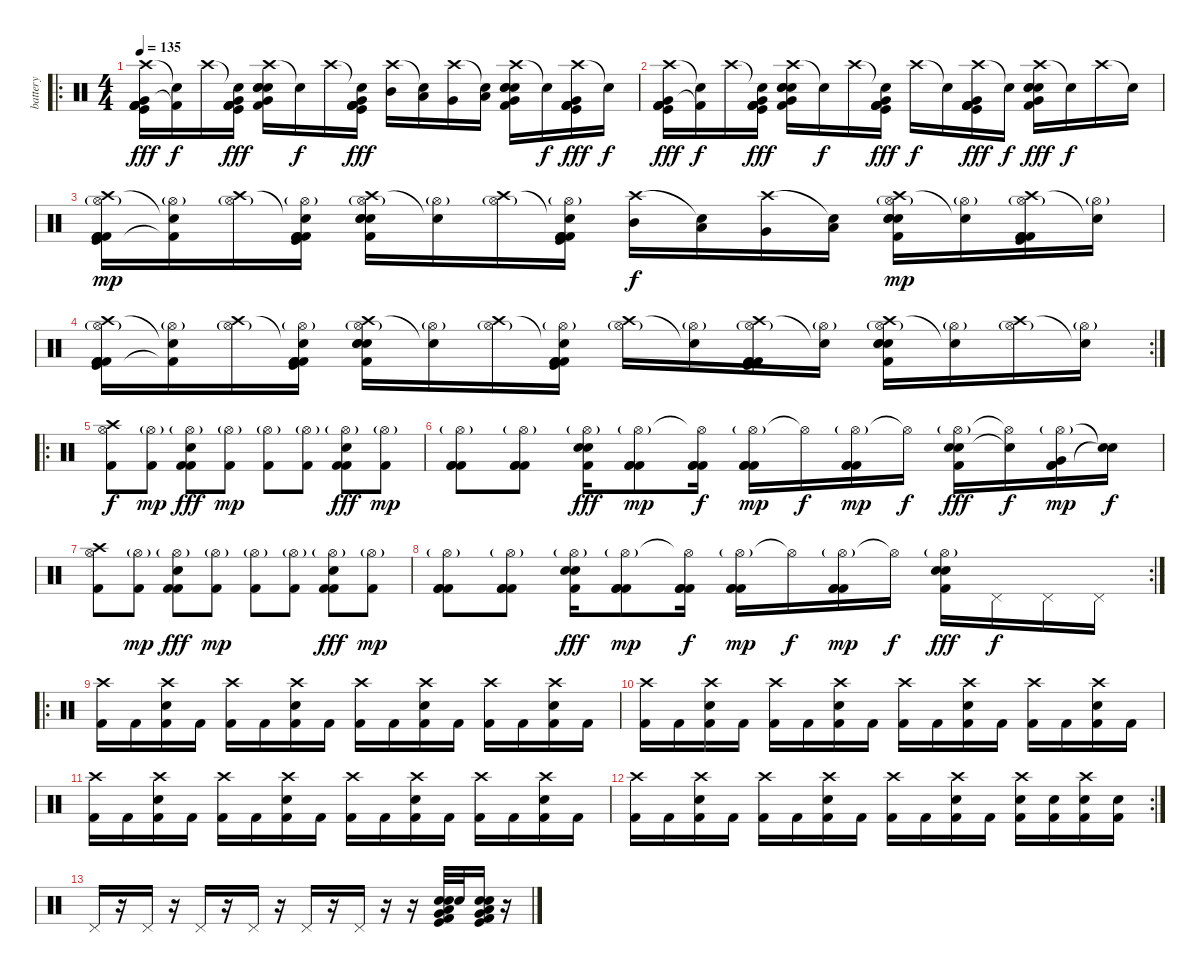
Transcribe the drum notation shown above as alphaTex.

\track ("battery" "battery") {instrument percussion}
\staff {score}
\articulation defaults
\ro
\ts (4 4)
\tempo 135
\clef neutral
\ks c
("Crash high (hit)" "Very Low Tom (hit)" "Kick (hit)" "Kick (hit) 2" "Kick (hit) 2" "Kick (hit) 2").16{dy fff} ("Snare (hit)"{t} "Kick (hit) 2"{t}).16{dy f} "Crash high (hit)".16 ("Snare (hit)"{t} "Very Low Tom (hit)" "Kick (hit)" "Kick (hit) 2" "Kick (hit) 2" "Kick (hit) 2").16{dy fff} ("Crash high (hit)" "Very Low Tom (hit)" "Kick (hit) 2" "Electric Snare (hit)" "Electric Snare (hit)" "Electric Snare (hit)").16 "Snare (hit)"{t}.16{dy f} "Crash high (hit)".16 ("Snare (hit)"{t} "Very Low Tom (hit)" "Kick (hit)" "Kick (hit) 2" "Kick (hit) 2" "Kick (hit) 2").16{dy fff} ("Crash high (hit)" "Mid Tom (hit)").16 ("Snare (hit)"{t} "Low Tom (hit)").16 ("Crash high (hit)" "Very Low Tom (hit)").16 ("Snare (hit)"{t} "Low Floor Tom (hit)").16 ("Crash high (hit)" "Very Low Tom (hit)" "Kick (hit) 2" "Electric Snare (hit)" "Electric Snare (hit)" "Electric Snare (hit)").16 "Snare (hit)"{t}.16{dy f} ("Crash high (hit)" "Very Low Tom (hit)" "Kick (hit)" "Kick (hit) 2" "Kick (hit) 2" "Kick (hit) 2").16{dy fff} "Snare (hit)"{t}.16{dy f} |
("Crash high (hit)" "Very Low Tom (hit)" "Kick (hit)" "Kick (hit) 2" "Kick (hit) 2" "Kick (hit) 2").16{dy fff} ("Snare (hit)"{t} "Kick (hit) 2"{t}).16{dy f} "Crash high (hit)".16 ("Snare (hit)"{t} "Very Low Tom (hit)" "Kick (hit)" "Kick (hit) 2" "Kick (hit) 2" "Kick (hit) 2").16{dy fff} ("Crash high (hit)" "Very Low Tom (hit)" "Kick (hit) 2" "Electric Snare (hit)" "Electric Snare (hit)" "Electric Snare (hit)").16 "Snare (hit)"{t}.16{dy f} "Crash high (hit)".16 ("Snare (hit)"{t} "Very Low Tom (hit)" "Kick (hit)" "Kick (hit) 2" "Kick (hit) 2" "Kick (hit) 2").16{dy fff} "Crash high (hit)".16{dy f} "Snare (hit)"{t}.16 ("Crash high (hit)" "Very Low Tom (hit)" "Kick (hit)" "Kick (hit) 2" "Kick (hit) 2" "Kick (hit) 2").16{dy fff} "Snare (hit)"{t}.16{dy f} ("Crash high (hit)" "Very Low Tom (hit)" "Kick (hit) 2" "Electric Snare (hit)" "Electric Snare (hit)" "Electric Snare (hit)").16{dy fff} "Snare (hit)"{t}.16{dy f} "Crash high (hit)".16 "Snare (hit)"{t}.16 |
("Crash high (hit)" "Hi-Hat (open)"{g} "Kick (hit)" "Kick (hit) 2" "Kick (hit) 2" "Kick (hit) 2").16{dy mp} ("Snare (hit)"{t} "Hi-Hat (open)"{g} "Kick (hit) 2"{t}).16 ("Crash high (hit)" "Hi-Hat (open)"{g}).16 ("Snare (hit)"{t} "Hi-Hat (open)"{g} "Kick (hit)" "Kick (hit) 2" "Kick (hit) 2" "Kick (hit) 2").16 ("Crash high (hit)" "Hi-Hat (open)"{g} "Kick (hit) 2" "Electric Snare (hit)" "Electric Snare (hit)" "Electric Snare (hit)").16 ("Snare (hit)"{t} "Hi-Hat (open)"{g}).16 ("Crash high (hit)" "Hi-Hat (open)"{g}).16 ("Snare (hit)"{t} "Hi-Hat (open)"{g} "Kick (hit)" "Kick (hit) 2" "Kick (hit) 2" "Kick (hit) 2").16 ("Crash high (hit)" "Mid Tom (hit)").16{dy f} ("Snare (hit)"{t} "Low Tom (hit)").16 ("Crash high (hit)" "Very Low Tom (hit)").16 ("Snare (hit)"{t} "Low Floor Tom (hit)").16 ("Crash high (hit)" "Hi-Hat (open)"{g} "Kick (hit) 2" "Electric Snare (hit)" "Electric Snare (hit)" "Electric Snare (hit)").16{dy mp} ("Snare (hit)"{t} "Hi-Hat (open)"{g}).16 ("Crash high (hit)" "Hi-Hat (open)"{g} "Kick (hit)" "Kick (hit) 2" "Kick (hit) 2" "Kick (hit) 2").16 ("Snare (hit)"{t} "Hi-Hat (open)"{g}).16 |
\rc 2
("Crash high (hit)" "Hi-Hat (open)"{g} "Kick (hit)" "Kick (hit) 2" "Kick (hit) 2" "Kick (hit) 2").16 ("Snare (hit)"{t} "Hi-Hat (open)"{g} "Kick (hit) 2"{t}).16 ("Crash high (hit)" "Hi-Hat (open)"{g}).16 ("Snare (hit)"{t} "Hi-Hat (open)"{g} "Kick (hit)" "Kick (hit) 2" "Kick (hit) 2" "Kick (hit) 2").16 ("Crash high (hit)" "Hi-Hat (open)"{g} "Kick (hit) 2" "Electric Snare (hit)" "Electric Snare (hit)" "Electric Snare (hit)").16 ("Snare (hit)"{t} "Hi-Hat (open)"{g}).16 ("Crash high (hit)" "Hi-Hat (open)"{g}).16 ("Snare (hit)"{t} "Hi-Hat (open)"{g} "Kick (hit)" "Kick (hit) 2" "Kick (hit) 2" "Kick (hit) 2").16 ("Crash high (hit)" "Hi-Hat (open)"{g}).16 ("Snare (hit)"{t} "Hi-Hat (open)"{g}).16 ("Crash high (hit)" "Hi-Hat (open)"{g} "Kick (hit)" "Kick (hit) 2" "Kick (hit) 2" "Kick (hit) 2").16 ("Snare (hit)"{t} "Hi-Hat (open)"{g}).16 ("Crash high (hit)" "Hi-Hat (open)"{g} "Kick (hit) 2" "Electric Snare (hit)" "Electric Snare (hit)" "Electric Snare (hit)").16 ("Snare (hit)"{t} "Hi-Hat (open)"{g}).16 ("Crash high (hit)" "Hi-Hat (open)"{g}).16 ("Snare (hit)"{t} "Hi-Hat (open)"{g}).16 |
\ro
("Hi-Hat (open)" "Crash high (hit)" "Kick (hit) 2").8{dy f} ("Hi-Hat (open)"{g} "Kick (hit) 2").8{dy mp} ("Hi-Hat (open)"{g} "Kick (hit) 2" "Electric Snare (hit)" "Kick (hit) 2").8{dy fff} ("Hi-Hat (open)"{g} "Kick (hit) 2").8{dy mp} ("Hi-Hat (open)"{g} "Kick (hit) 2").8 ("Hi-Hat (open)"{g} "Kick (hit) 2").8 ("Hi-Hat (open)"{g} "Kick (hit) 2" "Electric Snare (hit)" "Kick (hit) 2").8{dy fff} ("Hi-Hat (open)"{g} "Kick (hit) 2").8{dy mp} |
("Hi-Hat (open)"{g} "Kick (hit) 2" "Kick (hit) 2" "Kick (hit) 2").8 ("Hi-Hat (open)"{g} "Kick (hit) 2" "Kick (hit) 2" "Kick (hit) 2").8 ("Hi-Hat (open)"{g} "Electric Snare (hit)" "Kick (hit) 2" "Electric Snare (hit)").16{dy fff} ("Hi-Hat (open)"{g} "Kick (hit) 2" "Kick (hit) 2" "Kick (hit) 2").8{dy mp} ("Hi-Hat (open)"{t} "Kick (hit) 2" "Kick (hit) 2" "Kick (hit) 2").16{dy f} ("Hi-Hat (open)"{g} "Kick (hit) 2" "Kick (hit) 2" "Kick (hit) 2").16{dy mp} "Hi-Hat (open)"{t}.16{dy f} ("Hi-Hat (open)"{g} "Kick (hit) 2" "Kick (hit) 2" "Kick (hit) 2").16{dy mp} "Hi-Hat (open)"{t}.16{dy f} ("Hi-Hat (open)"{g} "Electric Snare (hit)" "Kick (hit) 2" "Electric Snare (hit)").16{dy fff} ("Hi-Hat (open)"{t} "Snare (hit)"{t}).16{dy f} ("Hi-Hat (open)"{g} "Kick (hit) 2" "Very Low Tom (hit)" "Kick (hit) 2").16{dy mp} ("Snare (hit)"{t} "Snare (hit)"{t}).16{dy f} |
("Hi-Hat (open)" "Crash high (hit)" "Kick (hit) 2").8 ("Hi-Hat (open)"{g} "Kick (hit) 2").8{dy mp} ("Hi-Hat (open)"{g} "Kick (hit) 2" "Electric Snare (hit)" "Kick (hit) 2").8{dy fff} ("Hi-Hat (open)"{g} "Kick (hit) 2").8{dy mp} ("Hi-Hat (open)"{g} "Kick (hit) 2").8 ("Hi-Hat (open)"{g} "Kick (hit) 2").8 ("Hi-Hat (open)"{g} "Kick (hit) 2" "Electric Snare (hit)" "Kick (hit) 2").8{dy fff} ("Hi-Hat (open)"{g} "Kick (hit) 2").8{dy mp} |
\rc 2
("Hi-Hat (open)"{g} "Kick (hit) 2" "Kick (hit) 2" "Kick (hit) 2").8 ("Hi-Hat (open)"{g} "Kick (hit) 2" "Kick (hit) 2" "Kick (hit) 2").8 ("Hi-Hat (open)"{g} "Electric Snare (hit)" "Kick (hit) 2" "Electric Snare (hit)").16{dy fff} ("Hi-Hat (open)"{g} "Kick (hit) 2" "Kick (hit) 2" "Kick (hit) 2").8{dy mp} ("Hi-Hat (open)"{t} "Kick (hit) 2" "Kick (hit) 2" "Kick (hit) 2").16{dy f} ("Hi-Hat (open)"{g} "Kick (hit) 2" "Kick (hit) 2" "Kick (hit) 2").16{dy mp} "Hi-Hat (open)"{t}.16{dy f} ("Hi-Hat (open)"{g} "Kick (hit) 2" "Kick (hit) 2" "Kick (hit) 2").16{dy mp} "Hi-Hat (open)"{t}.16{dy f} ("Hi-Hat (open)"{g} "Electric Snare (hit)" "Kick (hit) 2" "Electric Snare (hit)").16{dy fff} "Pedal Hi-Hat (hit)".16{dy f} "Pedal Hi-Hat (hit)".16 "Pedal Hi-Hat (hit)".16 |
\ro
("Crash high (hit)" "Kick (hit) 2").16 "Kick (hit) 2".16 ("Crash high (hit)" "Electric Snare (hit)" "Kick (hit) 2").16 "Kick (hit) 2".16 ("Crash high (hit)" "Kick (hit) 2").16 "Kick (hit) 2".16 ("Crash high (hit)" "Electric Snare (hit)" "Kick (hit) 2").16 "Kick (hit) 2".16 ("Crash high (hit)" "Kick (hit) 2").16 "Kick (hit) 2".16 ("Crash high (hit)" "Electric Snare (hit)" "Kick (hit) 2").16 "Kick (hit) 2".16 ("Crash high (hit)" "Kick (hit) 2").16 "Kick (hit) 2".16 ("Crash high (hit)" "Electric Snare (hit)" "Kick (hit) 2").16 "Kick (hit) 2".16 |
("Crash high (hit)" "Kick (hit) 2").16 "Kick (hit) 2".16 ("Crash high (hit)" "Electric Snare (hit)" "Kick (hit) 2").16 "Kick (hit) 2".16 ("Crash high (hit)" "Kick (hit) 2").16 "Kick (hit) 2".16 ("Crash high (hit)" "Electric Snare (hit)" "Kick (hit) 2").16 "Kick (hit) 2".16 ("Crash high (hit)" "Kick (hit) 2").16 "Kick (hit) 2".16 ("Crash high (hit)" "Electric Snare (hit)" "Kick (hit) 2").16 "Kick (hit) 2".16 ("Crash high (hit)" "Kick (hit) 2").16 "Kick (hit) 2".16 ("Crash high (hit)" "Electric Snare (hit)" "Kick (hit) 2").16 "Kick (hit) 2".16 |
("Crash high (hit)" "Kick (hit) 2").16 "Kick (hit) 2".16 ("Crash high (hit)" "Electric Snare (hit)" "Kick (hit) 2").16 "Kick (hit) 2".16 ("Crash high (hit)" "Kick (hit) 2").16 "Kick (hit) 2".16 ("Crash high (hit)" "Electric Snare (hit)" "Kick (hit) 2").16 "Kick (hit) 2".16 ("Crash high (hit)" "Kick (hit) 2").16 "Kick (hit) 2".16 ("Crash high (hit)" "Electric Snare (hit)" "Kick (hit) 2").16 "Kick (hit) 2".16 ("Crash high (hit)" "Kick (hit) 2").16 "Kick (hit) 2".16 ("Crash high (hit)" "Electric Snare (hit)" "Kick (hit) 2").16 "Kick (hit) 2".16 |
\rc 2
("Crash high (hit)" "Kick (hit) 2").16 "Kick (hit) 2".16 ("Crash high (hit)" "Electric Snare (hit)" "Kick (hit) 2").16 "Kick (hit) 2".16 ("Crash high (hit)" "Kick (hit) 2").16 "Kick (hit) 2".16 ("Crash high (hit)" "Electric Snare (hit)" "Kick (hit) 2").16 "Kick (hit) 2".16 ("Crash high (hit)" "Kick (hit) 2").16 "Kick (hit) 2".16 ("Crash high (hit)" "Electric Snare (hit)" "Kick (hit) 2").16 "Kick (hit) 2".16 ("Crash high (hit)" "Electric Snare (hit)" "Kick (hit) 2").16 ("Electric Snare (hit)" "Kick (hit) 2").16 ("Crash high (hit)" "Electric Snare (hit)" "Kick (hit) 2").16 ("Electric Snare (hit)" "Kick (hit) 2").16 |
"Pedal Hi-Hat (hit)".16 r.16 "Pedal Hi-Hat (hit)".16 r.16 "Pedal Hi-Hat (hit)".16 r.16 "Pedal Hi-Hat (hit)".16 r.16 "Pedal Hi-Hat (hit)".16 r.16 "Pedal Hi-Hat (hit)".16 r.16 r.16 ("Kick (hit)" "Kick (hit) 2" "Very Low Tom (hit)" "Low Floor Tom (hit)" "Electric Snare (hit)" "Snare (hit) 2").32 "Snare (hit) 2".32 ("Kick (hit)" "Kick (hit) 2" "Very Low Tom (hit)" "Low Floor Tom (hit)" "Electric Snare (hit)" "Snare (hit) 2").16 r.16
